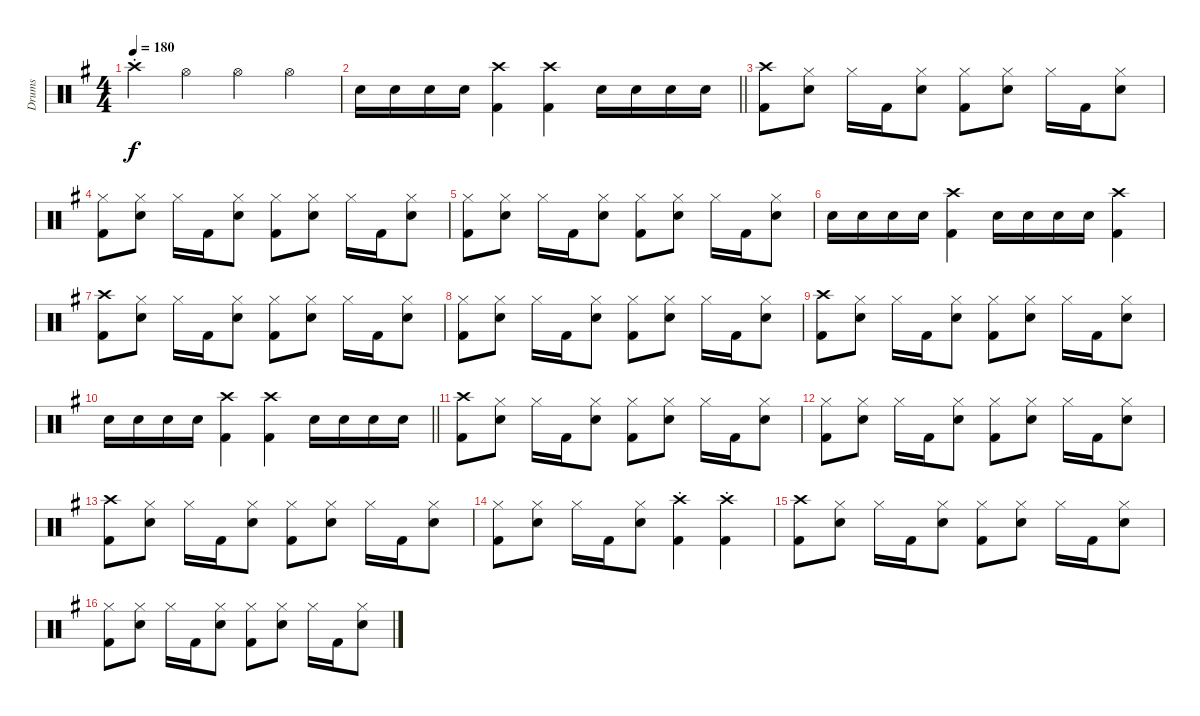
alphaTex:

\track ("Drums" "Drums") {instrument percussion}
\staff {score}
\articulation defaults
\ts (4 4)
\tempo 180
\clef neutral
\ks g "Crash high (hit)"{st}.4{dy f} "Hi-Hat (open)".4 "Hi-Hat (open)".4 "Hi-Hat (open)".4
|
\barLineRight lightlight "Snare (hit) 2".16 "Snare (hit) 2".16 "Snare (hit) 2".16 "Snare (hit) 2".16
("Crash high (hit)" "Kick (hit) 2").4 ("Crash high (hit)" "Kick (hit) 2").4 "Snare (hit) 2".16 "Snare (hit) 2".16 "Snare (hit) 2".16 "Snare (hit) 2".16 |
("Crash high (hit)" "Kick (hit) 2").8 ("Hi-Hat (closed)" "Snare (hit) 2").8 "Hi-Hat (closed)".16 "Kick (hit) 2".16 ("Hi-Hat (closed)" "Snare (hit) 2").8 ("Hi-Hat (closed)" "Kick (hit) 2").8 ("Hi-Hat (closed)" "Snare (hit) 2").8 "Hi-Hat (closed)".16 "Kick (hit) 2".16 ("Hi-Hat (closed)" "Snare (hit) 2").8 |
("Hi-Hat (closed)" "Kick (hit) 2").8 ("Hi-Hat (closed)" "Snare (hit) 2").8 "Hi-Hat (closed)".16 "Kick (hit) 2".16 ("Hi-Hat (closed)" "Snare (hit) 2").8 ("Hi-Hat (closed)" "Kick (hit) 2").8 ("Hi-Hat (closed)" "Snare (hit) 2").8 "Hi-Hat (closed)".16 "Kick (hit) 2".16 ("Hi-Hat (closed)" "Snare (hit) 2").8 |
("Hi-Hat (closed)" "Kick (hit) 2").8 ("Hi-Hat (closed)" "Snare (hit) 2").8 "Hi-Hat (closed)".16 "Kick (hit) 2".16 ("Hi-Hat (closed)" "Snare (hit) 2").8 ("Hi-Hat (closed)" "Kick (hit) 2").8 ("Hi-Hat (closed)" "Snare (hit) 2").8 "Hi-Hat (closed)".16 "Kick (hit) 2".16 ("Hi-Hat (closed)" "Snare (hit) 2").8 |
"Snare (hit) 2".16 "Snare (hit) 2".16 "Snare (hit) 2".16 "Snare (hit) 2".16 ("Crash high (hit)" "Kick (hit) 2").4 "Snare (hit) 2".16 "Snare (hit) 2".16 "Snare (hit) 2".16 "Snare (hit) 2".16 ("Crash high (hit)" "Kick (hit) 2").4 |
("Crash high (hit)" "Kick (hit) 2").8 ("Hi-Hat (closed)" "Snare (hit) 2").8 "Hi-Hat (closed)".16 "Kick (hit) 2".16 ("Hi-Hat (closed)" "Snare (hit) 2").8 ("Hi-Hat (closed)" "Kick (hit) 2").8 ("Hi-Hat (closed)" "Snare (hit) 2").8 "Hi-Hat (closed)".16 "Kick (hit) 2".16 ("Hi-Hat (closed)" "Snare (hit) 2").8 |
("Hi-Hat (closed)" "Kick (hit) 2").8 ("Hi-Hat (closed)" "Snare (hit) 2").8 "Hi-Hat (closed)".16 "Kick (hit) 2".16 ("Hi-Hat (closed)" "Snare (hit) 2").8 ("Hi-Hat (closed)" "Kick (hit) 2").8 ("Hi-Hat (closed)" "Snare (hit) 2").8 "Hi-Hat (closed)".16 "Kick (hit) 2".16 ("Hi-Hat (closed)" "Snare (hit) 2").8 |
("Crash high (hit)" "Kick (hit) 2").8 ("Hi-Hat (closed)" "Snare (hit) 2").8 "Hi-Hat (closed)".16 "Kick (hit) 2".16 ("Hi-Hat (closed)" "Snare (hit) 2").8 ("Hi-Hat (closed)" "Kick (hit) 2").8 ("Hi-Hat (closed)" "Snare (hit) 2").8 "Hi-Hat (closed)".16 "Kick (hit) 2".16 ("Hi-Hat (closed)" "Snare (hit) 2").8 |
\barLineRight lightlight "Snare (hit) 2".16 "Snare (hit) 2".16 "Snare (hit) 2".16 "Snare (hit) 2".16
("Crash high (hit)" "Kick (hit) 2").4 ("Crash high (hit)" "Kick (hit) 2").4 "Snare (hit) 2".16 "Snare (hit) 2".16 "Snare (hit) 2".16 "Snare (hit) 2".16 |
("Crash high (hit)" "Kick (hit) 2").8 ("Hi-Hat (closed)" "Snare (hit) 2").8 "Hi-Hat (closed)".16 "Kick (hit) 2".16 ("Hi-Hat (closed)" "Snare (hit) 2").8 ("Hi-Hat (closed)" "Kick (hit) 2").8 ("Hi-Hat (closed)" "Snare (hit) 2").8 "Hi-Hat (closed)".16 "Kick (hit) 2".16 ("Hi-Hat (closed)" "Snare (hit) 2").8 |
("Hi-Hat (closed)" "Kick (hit) 2").8 ("Hi-Hat (closed)" "Snare (hit) 2").8 "Hi-Hat (closed)".16 "Kick (hit) 2".16 ("Hi-Hat (closed)" "Snare (hit) 2").8 ("Hi-Hat (closed)" "Kick (hit) 2").8 ("Hi-Hat (closed)" "Snare (hit) 2").8 "Hi-Hat (closed)".16 "Kick (hit) 2".16 ("Hi-Hat (closed)" "Snare (hit) 2").8 |
("Crash high (hit)" "Kick (hit) 2").8 ("Hi-Hat (closed)" "Snare (hit) 2").8 "Hi-Hat (closed)".16 "Kick (hit) 2".16 ("Hi-Hat (closed)" "Snare (hit) 2").8 ("Hi-Hat (closed)" "Kick (hit) 2").8 ("Hi-Hat (closed)" "Snare (hit) 2").8 "Hi-Hat (closed)".16 "Kick (hit) 2".16 ("Hi-Hat (closed)" "Snare (hit) 2").8 |
("Hi-Hat (closed)" "Kick (hit) 2").8 ("Hi-Hat (closed)" "Snare (hit) 2").8 "Hi-Hat (closed)".16 "Kick (hit) 2".16 ("Hi-Hat (closed)" "Snare (hit) 2").8 ("Crash high (hit)"{st} "Kick (hit) 2").4 ("Crash high (hit)"{st} "Kick (hit) 2").4 |
("Crash high (hit)" "Kick (hit) 2").8 ("Hi-Hat (closed)" "Snare (hit) 2").8 "Hi-Hat (closed)".16 "Kick (hit) 2".16 ("Hi-Hat (closed)" "Snare (hit) 2").8 ("Hi-Hat (closed)" "Kick (hit) 2").8 ("Hi-Hat (closed)" "Snare (hit) 2").8 "Hi-Hat (closed)".16 "Kick (hit) 2".16 ("Hi-Hat (closed)" "Snare (hit) 2").8 |
("Hi-Hat (closed)" "Kick (hit) 2").8 ("Hi-Hat (closed)" "Snare (hit) 2").8 "Hi-Hat (closed)".16 "Kick (hit) 2".16 ("Hi-Hat (closed)" "Snare (hit) 2").8 ("Hi-Hat (closed)" "Kick (hit) 2").8 ("Hi-Hat (closed)" "Snare (hit) 2").8 "Hi-Hat (closed)".16 "Kick (hit) 2".16 ("Hi-Hat (closed)" "Snare (hit) 2").8
